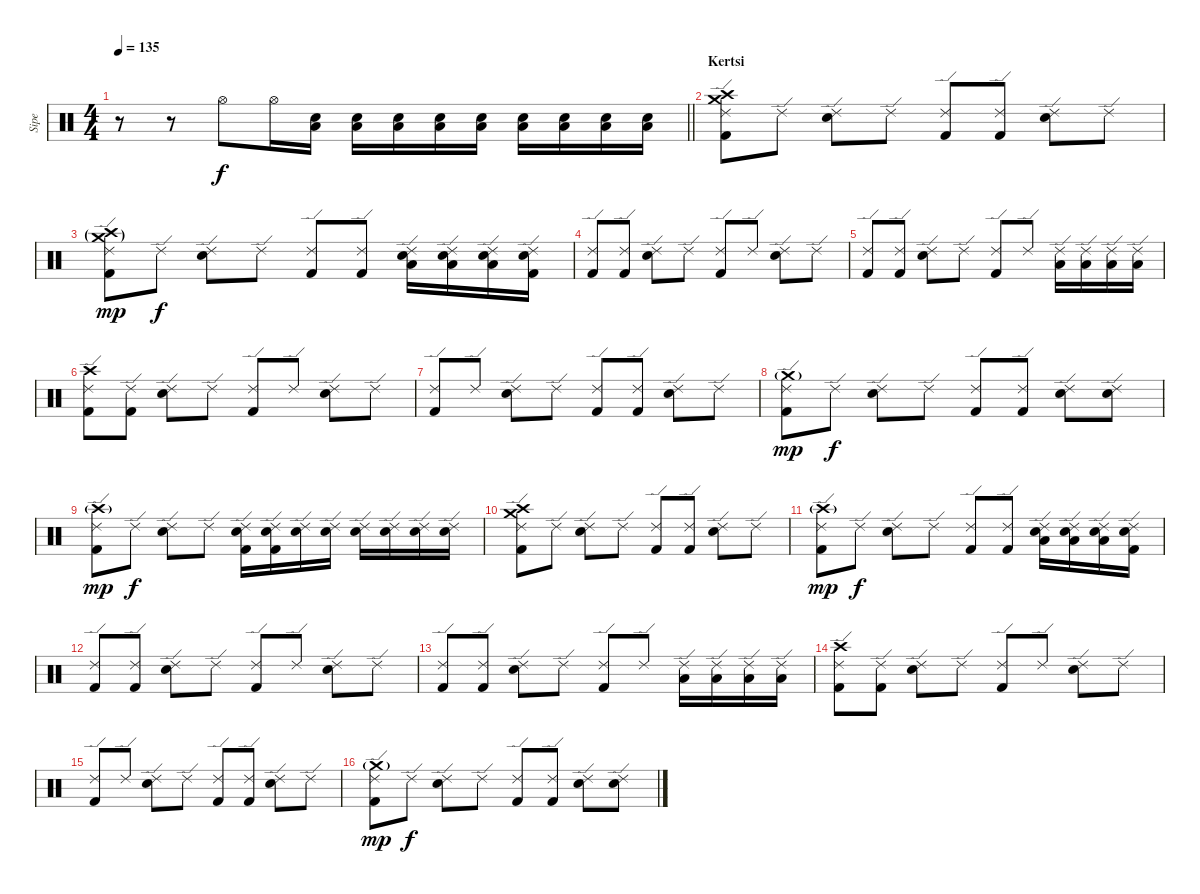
\track ("Sipe" "Sipe") {instrument percussion}
\staff {score}
\articulation defaults
\ts (4 4)
\tempo 135
\clef neutral
\barLineRight lightlight
\ks c
r.8{dy f} r.8 "Hi-Hat (open)".8 "Hi-Hat (open)".16 ("Snare (hit) 2" "Low Tom (hit)").16 ("Snare (hit) 2" "Low Tom (hit)").16 ("Snare (hit) 2" "Low Tom (hit)").16 ("Snare (hit) 2" "Low Tom (hit)").16 ("Snare (hit) 2" "Low Tom (hit)").16 ("Snare (hit) 2" "Low Tom (hit)").16 ("Snare (hit) 2" "Low Tom (hit)").16 ("Snare (hit) 2" "Low Tom (hit)").16 ("Snare (hit) 2" "Low Tom (hit)").16 |
\section ("" "Kertsi")
("Kick (hit) 2" "Ride (edge) 2" "Crash high (hit)" "Crash medium (hit)").8 "Ride (edge) 2".8 ("Snare (hit) 2" "Ride (edge) 2").8 "Ride (edge) 2".8 ("Kick (hit) 2" "Ride (edge) 2").8 ("Kick (hit) 2" "Ride (edge) 2").8 ("Snare (hit) 2" "Ride (edge) 2").8 "Ride (edge) 2".8 |
("Kick (hit) 2" "Ride (edge) 2" "Crash high (hit)"{g} "Crash medium (hit)"{g}).8{dy mp} "Ride (edge) 2".8{dy f} ("Snare (hit) 2" "Ride (edge) 2").8 "Ride (edge) 2".8 ("Kick (hit) 2" "Ride (edge) 2").8 ("Kick (hit) 2" "Ride (edge) 2").8 ("Snare (hit) 2" "Ride (edge) 2" "Low Tom (hit)").16 ("Snare (hit) 2" "Ride (edge) 2" "Low Tom (hit)").16 ("Snare (hit) 2" "Ride (edge) 2" "Low Tom (hit)").16 ("Snare (hit) 2" "Ride (edge) 2" "Kick (hit) 2").16 |
("Kick (hit) 2" "Ride (edge) 2").8 ("Kick (hit) 2" "Ride (edge) 2").8 ("Snare (hit) 2" "Ride (edge) 2").8 "Ride (edge) 2".8 ("Kick (hit) 2" "Ride (edge) 2").8 "Ride (edge) 2".8 ("Snare (hit) 2" "Ride (edge) 2").8 "Ride (edge) 2".8 |
("Kick (hit) 2" "Ride (edge) 2").8 ("Kick (hit) 2" "Ride (edge) 2").8 ("Snare (hit) 2" "Ride (edge) 2").8 "Ride (edge) 2".8 ("Kick (hit) 2" "Ride (edge) 2").8 "Ride (edge) 2".8 ("Low Tom (hit)" "Ride (edge) 2").16 ("Low Tom (hit)" "Ride (edge) 2").16 ("Low Tom (hit)" "Ride (edge) 2").16 ("Low Tom (hit)" "Ride (edge) 2").16 |
("Crash high (hit)" "Kick (hit) 2" "Ride (edge) 2").8 ("Kick (hit) 2" "Ride (edge) 2").8 ("Snare (hit) 2" "Ride (edge) 2").8 "Ride (edge) 2".8 ("Kick (hit) 2" "Ride (edge) 2").8 "Ride (edge) 2".8 ("Snare (hit) 2" "Ride (edge) 2").8 "Ride (edge) 2".8 |
("Kick (hit) 2" "Ride (edge) 2").8 "Ride (edge) 2".8 ("Snare (hit) 2" "Ride (edge) 2").8 "Ride (edge) 2".8 ("Kick (hit) 2" "Ride (edge) 2").8 ("Kick (hit) 2" "Ride (edge) 2").8 ("Snare (hit) 2" "Ride (edge) 2").8 "Ride (edge) 2".8 |
("Crash medium (hit)"{g} "Kick (hit) 2" "Ride (edge) 2").8{dy mp} "Ride (edge) 2".8{dy f} ("Snare (hit) 2" "Ride (edge) 2").8 "Ride (edge) 2".8 ("Kick (hit) 2" "Ride (edge) 2").8 ("Kick (hit) 2" "Ride (edge) 2").8 ("Snare (hit) 2" "Ride (edge) 2").8 ("Snare (hit) 2" "Ride (edge) 2").8 |
("Crash high (hit)"{g} "Kick (hit) 2" "Ride (edge) 2").8{dy mp} "Ride (edge) 2".8{dy f} ("Snare (hit) 2" "Ride (edge) 2").8 "Ride (edge) 2".8 ("Kick (hit) 2" "Ride (edge) 2" "Snare (hit) 2").16 ("Kick (hit) 2" "Ride (edge) 2" "Snare (hit) 2").16 ("Ride (edge) 2" "Snare (hit) 2").16 ("Ride (edge) 2" "Snare (hit) 2").16 ("Ride (edge) 2" "Snare (hit) 2").16 ("Ride (edge) 2" "Snare (hit) 2").16 ("Ride (edge) 2" "Snare (hit) 2").16 ("Ride (edge) 2" "Snare (hit) 2").16 |
("Kick (hit) 2" "Ride (edge) 2" "Crash high (hit)" "Crash medium (hit)").8 "Ride (edge) 2".8 ("Snare (hit) 2" "Ride (edge) 2").8 "Ride (edge) 2".8 ("Kick (hit) 2" "Ride (edge) 2").8 ("Kick (hit) 2" "Ride (edge) 2").8 ("Snare (hit) 2" "Ride (edge) 2").8 "Ride (edge) 2".8 |
("Kick (hit) 2" "Ride (edge) 2" "Crash high (hit)"{g}).8{dy mp} "Ride (edge) 2".8{dy f} ("Snare (hit) 2" "Ride (edge) 2").8 "Ride (edge) 2".8 ("Kick (hit) 2" "Ride (edge) 2").8 ("Kick (hit) 2" "Ride (edge) 2").8 ("Snare (hit) 2" "Ride (edge) 2" "Low Tom (hit)").16 ("Snare (hit) 2" "Ride (edge) 2" "Low Tom (hit)").16 ("Snare (hit) 2" "Ride (edge) 2" "Low Tom (hit)").16 ("Snare (hit) 2" "Ride (edge) 2" "Kick (hit) 2").16 |
("Kick (hit) 2" "Ride (edge) 2").8 ("Kick (hit) 2" "Ride (edge) 2").8 ("Snare (hit) 2" "Ride (edge) 2").8 "Ride (edge) 2".8 ("Kick (hit) 2" "Ride (edge) 2").8 "Ride (edge) 2".8 ("Snare (hit) 2" "Ride (edge) 2").8 "Ride (edge) 2".8 |
("Kick (hit) 2" "Ride (edge) 2").8 ("Kick (hit) 2" "Ride (edge) 2").8 ("Snare (hit) 2" "Ride (edge) 2").8 "Ride (edge) 2".8 ("Kick (hit) 2" "Ride (edge) 2").8 "Ride (edge) 2".8 ("Low Tom (hit)" "Ride (edge) 2").16 ("Low Tom (hit)" "Ride (edge) 2").16 ("Low Tom (hit)" "Ride (edge) 2").16 ("Low Tom (hit)" "Ride (edge) 2").16 |
("Crash high (hit)" "Kick (hit) 2" "Ride (edge) 2").8 ("Kick (hit) 2" "Ride (edge) 2").8 ("Snare (hit) 2" "Ride (edge) 2").8 "Ride (edge) 2".8 ("Kick (hit) 2" "Ride (edge) 2").8 "Ride (edge) 2".8 ("Snare (hit) 2" "Ride (edge) 2").8 "Ride (edge) 2".8 |
("Kick (hit) 2" "Ride (edge) 2").8 "Ride (edge) 2".8 ("Snare (hit) 2" "Ride (edge) 2").8 "Ride (edge) 2".8 ("Kick (hit) 2" "Ride (edge) 2").8 ("Kick (hit) 2" "Ride (edge) 2").8 ("Snare (hit) 2" "Ride (edge) 2").8 "Ride (edge) 2".8 |
("Crash medium (hit)"{g} "Kick (hit) 2" "Ride (edge) 2").8{dy mp} "Ride (edge) 2".8{dy f} ("Snare (hit) 2" "Ride (edge) 2").8 "Ride (edge) 2".8 ("Kick (hit) 2" "Ride (edge) 2").8 ("Kick (hit) 2" "Ride (edge) 2").8 ("Snare (hit) 2" "Ride (edge) 2").8 ("Snare (hit) 2" "Ride (edge) 2").8
